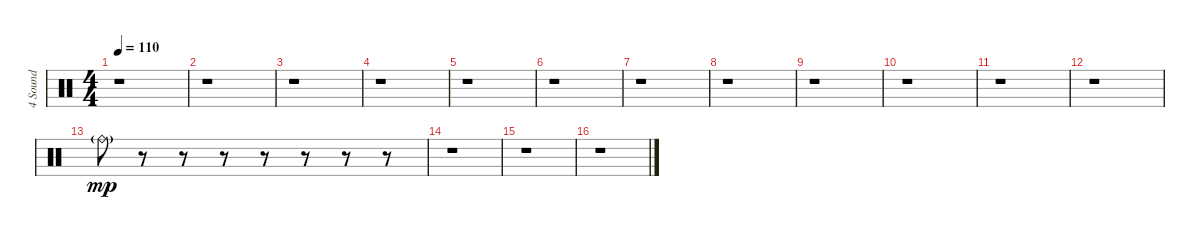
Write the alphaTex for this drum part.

\track ("4 Sound" "4 Sound") {instrument percussion}
\staff {score}
\articulation defaults
\ts (4 4)
\tempo 110
\clef neutral
\ks c
r.1{dy mp} |
r.1 |
r.1 |
r.1 |
r.1 |
r.1 |
r.1 |
r.1 |
r.1 |
r.1 |
r.1 |
r.1 |
"Ride (bell)"{g}.8 r.8 r.8 r.8 r.8 r.8 r.8 r.8 |
r.1 |
r.1 |
r.1
